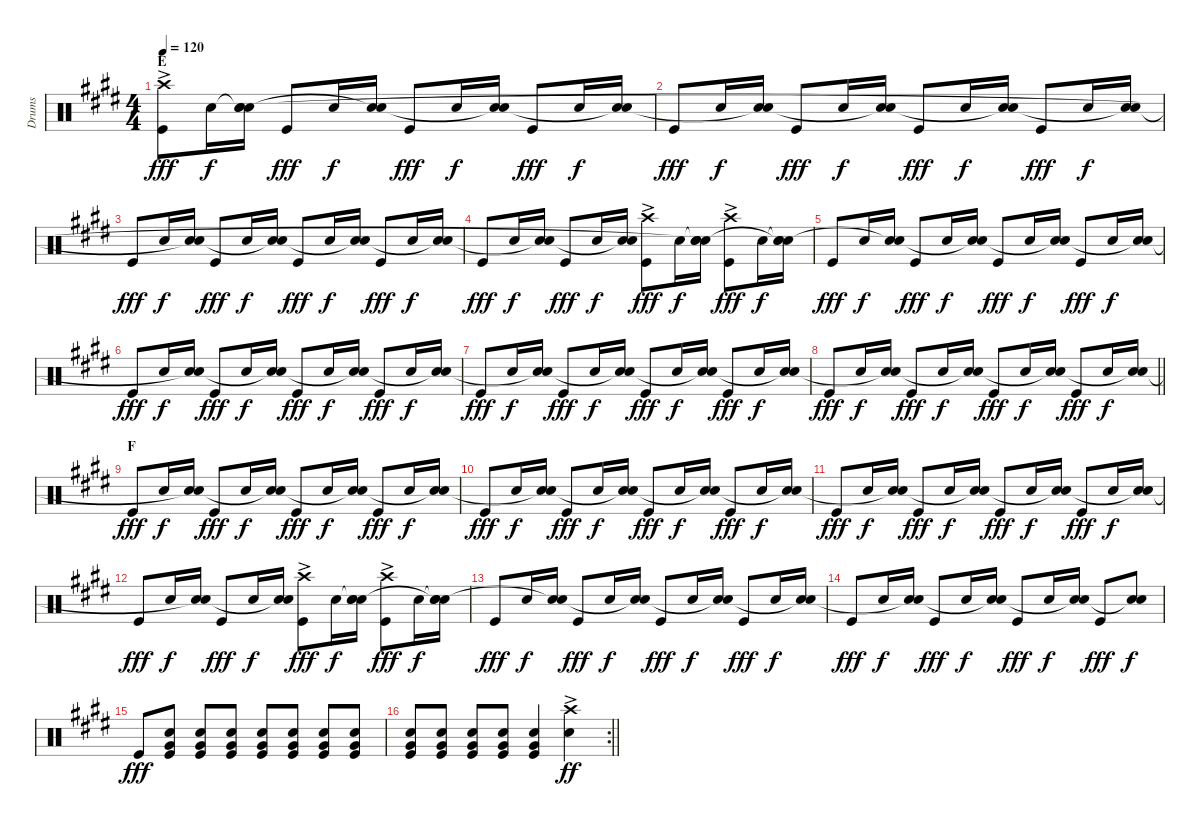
\track ("Drums" "Drums") {instrument percussion}
\staff {score}
\articulation defaults
\ts (4 4)
\section ("" "E")
\tempo 120
\clef neutral
\ks e
("Crash high (hit)"{ac} "Kick (hit)").8{dy fff} "Snare (hit) 2".16{dy f} ("Snare (hit)"{t} "Snare (hit) 2" "Snare (hit)"{t}).16 "Kick (hit)".8{dy fff} "Snare (hit) 2".16{dy f} ("Snare (hit) 2" "Snare (hit)"{t}).16 "Kick (hit)".8{dy fff} "Snare (hit) 2".16{dy f} ("Snare (hit) 2" "Snare (hit)"{t}).16 "Kick (hit)".8{dy fff} "Snare (hit) 2".16{dy f} ("Snare (hit) 2" "Snare (hit)"{t}).16 |
"Kick (hit)".8{dy fff} "Snare (hit) 2".16{dy f} ("Snare (hit) 2" "Snare (hit)"{t}).16 "Kick (hit)".8{dy fff} "Snare (hit) 2".16{dy f} ("Snare (hit) 2" "Snare (hit)"{t}).16 "Kick (hit)".8{dy fff} "Snare (hit) 2".16{dy f} ("Snare (hit) 2" "Snare (hit)"{t}).16 "Kick (hit)".8{dy fff} "Snare (hit) 2".16{dy f} ("Snare (hit) 2" "Snare (hit)"{t}).16 |
"Kick (hit)".8{dy fff} "Snare (hit) 2".16{dy f} ("Snare (hit) 2" "Snare (hit)"{t}).16 "Kick (hit)".8{dy fff} "Snare (hit) 2".16{dy f} ("Snare (hit) 2" "Snare (hit)"{t}).16 "Kick (hit)".8{dy fff} "Snare (hit) 2".16{dy f} ("Snare (hit) 2" "Snare (hit)"{t}).16 "Kick (hit)".8{dy fff} "Snare (hit) 2".16{dy f} ("Snare (hit) 2" "Snare (hit)"{t}).16 |
"Kick (hit)".8{dy fff} "Snare (hit) 2".16{dy f} ("Snare (hit) 2" "Snare (hit)"{t}).16 "Kick (hit)".8{dy fff} "Snare (hit) 2".16{dy f} ("Snare (hit) 2" "Snare (hit)"{t}).16 ("Crash high (hit)"{ac} "Kick (hit)").8{dy fff} "Snare (hit) 2".16{dy f} ("Snare (hit)"{t} "Snare (hit) 2" "Snare (hit)"{t}).16 ("Crash high (hit)"{ac} "Kick (hit)").8{dy fff} "Snare (hit) 2".16{dy f} ("Snare (hit)"{t} "Snare (hit) 2" "Snare (hit)"{t}).16 |
"Kick (hit)".8{dy fff} "Snare (hit) 2".16{dy f} ("Snare (hit) 2" "Snare (hit)"{t}).16 "Kick (hit)".8{dy fff} "Snare (hit) 2".16{dy f} ("Snare (hit) 2" "Snare (hit)"{t}).16 "Kick (hit)".8{dy fff} "Snare (hit) 2".16{dy f} ("Snare (hit) 2" "Snare (hit)"{t}).16 "Kick (hit)".8{dy fff} "Snare (hit) 2".16{dy f} ("Snare (hit) 2" "Snare (hit)"{t}).16 |
"Kick (hit)".8{dy fff} "Snare (hit) 2".16{dy f} ("Snare (hit) 2" "Snare (hit)"{t}).16 "Kick (hit)".8{dy fff} "Snare (hit) 2".16{dy f} ("Snare (hit) 2" "Snare (hit)"{t}).16 "Kick (hit)".8{dy fff} "Snare (hit) 2".16{dy f} ("Snare (hit) 2" "Snare (hit)"{t}).16 "Kick (hit)".8{dy fff} "Snare (hit) 2".16{dy f} ("Snare (hit) 2" "Snare (hit)"{t}).16 |
"Kick (hit)".8{dy fff} "Snare (hit) 2".16{dy f} ("Snare (hit) 2" "Snare (hit)"{t}).16 "Kick (hit)".8{dy fff} "Snare (hit) 2".16{dy f} ("Snare (hit) 2" "Snare (hit)"{t}).16 "Kick (hit)".8{dy fff} "Snare (hit) 2".16{dy f} ("Snare (hit) 2" "Snare (hit)"{t}).16 "Kick (hit)".8{dy fff} "Snare (hit) 2".16{dy f} ("Snare (hit) 2" "Snare (hit)"{t}).16 |
\barLineRight lightlight "Kick (hit)".8{dy fff} "Snare (hit) 2".16{dy f}
("Snare (hit) 2" "Snare (hit)"{t}).16 "Kick (hit)".8{dy fff} "Snare (hit) 2".16{dy f} ("Snare (hit) 2" "Snare (hit)"{t}).16 "Kick (hit)".8{dy fff} "Snare (hit) 2".16{dy f} ("Snare (hit) 2" "Snare (hit)"{t}).16 "Kick (hit)".8{dy fff} "Snare (hit) 2".16{dy f} ("Snare (hit) 2" "Snare (hit)"{t}).16 |
\section ("" "F")
"Kick (hit)".8{dy fff} "Snare (hit) 2".16{dy f} ("Snare (hit) 2" "Snare (hit)"{t}).16 "Kick (hit)".8{dy fff} "Snare (hit) 2".16{dy f} ("Snare (hit) 2" "Snare (hit)"{t}).16 "Kick (hit)".8{dy fff} "Snare (hit) 2".16{dy f} ("Snare (hit) 2" "Snare (hit)"{t}).16 "Kick (hit)".8{dy fff} "Snare (hit) 2".16{dy f} ("Snare (hit) 2" "Snare (hit)"{t}).16 |
"Kick (hit)".8{dy fff} "Snare (hit) 2".16{dy f} ("Snare (hit) 2" "Snare (hit)"{t}).16 "Kick (hit)".8{dy fff} "Snare (hit) 2".16{dy f} ("Snare (hit) 2" "Snare (hit)"{t}).16 "Kick (hit)".8{dy fff} "Snare (hit) 2".16{dy f} ("Snare (hit) 2" "Snare (hit)"{t}).16 "Kick (hit)".8{dy fff} "Snare (hit) 2".16{dy f} ("Snare (hit) 2" "Snare (hit)"{t}).16 |
"Kick (hit)".8{dy fff} "Snare (hit) 2".16{dy f} ("Snare (hit) 2" "Snare (hit)"{t}).16 "Kick (hit)".8{dy fff} "Snare (hit) 2".16{dy f} ("Snare (hit) 2" "Snare (hit)"{t}).16 "Kick (hit)".8{dy fff} "Snare (hit) 2".16{dy f} ("Snare (hit) 2" "Snare (hit)"{t}).16 "Kick (hit)".8{dy fff} "Snare (hit) 2".16{dy f} ("Snare (hit) 2" "Snare (hit)"{t}).16 |
"Kick (hit)".8{dy fff} "Snare (hit) 2".16{dy f} ("Snare (hit) 2" "Snare (hit)"{t}).16 "Kick (hit)".8{dy fff} "Snare (hit) 2".16{dy f} ("Snare (hit) 2" "Snare (hit)"{t}).16 ("Crash high (hit)"{ac} "Kick (hit)").8{dy fff} "Snare (hit) 2".16{dy f} ("Snare (hit)"{t} "Snare (hit) 2" "Snare (hit)").16 ("Crash high (hit)"{ac} "Kick (hit)").8{dy fff} "Snare (hit) 2".16{dy f} ("Snare (hit)"{t} "Snare (hit) 2" "Snare (hit)"{t}).16 |
"Kick (hit)".8{dy fff} "Snare (hit) 2".16{dy f} ("Snare (hit) 2" "Snare (hit)"{t}).16 "Kick (hit)".8{dy fff} "Snare (hit) 2".16{dy f} ("Snare (hit) 2" "Snare (hit)"{t}).16 "Kick (hit)".8{dy fff} "Snare (hit) 2".16{dy f} ("Snare (hit) 2" "Snare (hit)"{t}).16 "Kick (hit)".8{dy fff} "Snare (hit) 2".16{dy f} ("Snare (hit) 2" "Snare (hit)"{t}).16 |
"Kick (hit)".8{dy fff} "Snare (hit) 2".16{dy f} ("Snare (hit) 2" "Snare (hit)"{t}).16 "Kick (hit)".8{dy fff} "Snare (hit) 2".16{dy f} ("Snare (hit) 2" "Snare (hit)"{t}).16 "Kick (hit)".8{dy fff} "Snare (hit) 2".16{dy f} ("Snare (hit) 2" "Snare (hit)"{t}).16 "Kick (hit)".8{dy fff} ("Snare (hit) 2" "Snare (hit)"{t}).8{dy f} |
"Kick (hit)".8{dy fff} ("Snare (hit) 2" "Very Low Tom (hit)" "Kick (hit)").8{volume 5} ("Snare (hit) 2" "Very Low Tom (hit)" "Kick (hit)").8{volume 16} ("Snare (hit) 2" "Very Low Tom (hit)" "Kick (hit)").8 ("Snare (hit) 2" "Very Low Tom (hit)" "Kick (hit)").8 ("Snare (hit) 2" "Very Low Tom (hit)" "Kick (hit)").8 ("Snare (hit) 2" "Very Low Tom (hit)" "Kick (hit)").8 ("Snare (hit) 2" "Very Low Tom (hit)" "Kick (hit)").8 |
\rc 2
\barLineRight lightlight
("Snare (hit) 2" "Very Low Tom (hit)" "Kick (hit)").8 ("Snare (hit) 2" "Very Low Tom (hit)" "Kick (hit)").8 ("Snare (hit) 2" "Very Low Tom (hit)" "Kick (hit)").8 ("Snare (hit) 2" "Very Low Tom (hit)" "Kick (hit)").8 ("Snare (hit) 2" "Very Low Tom (hit)" "Kick (hit)").4 ("Crash high (hit)"{ac} "Snare (hit) 2").4{dy ff volume 11}
